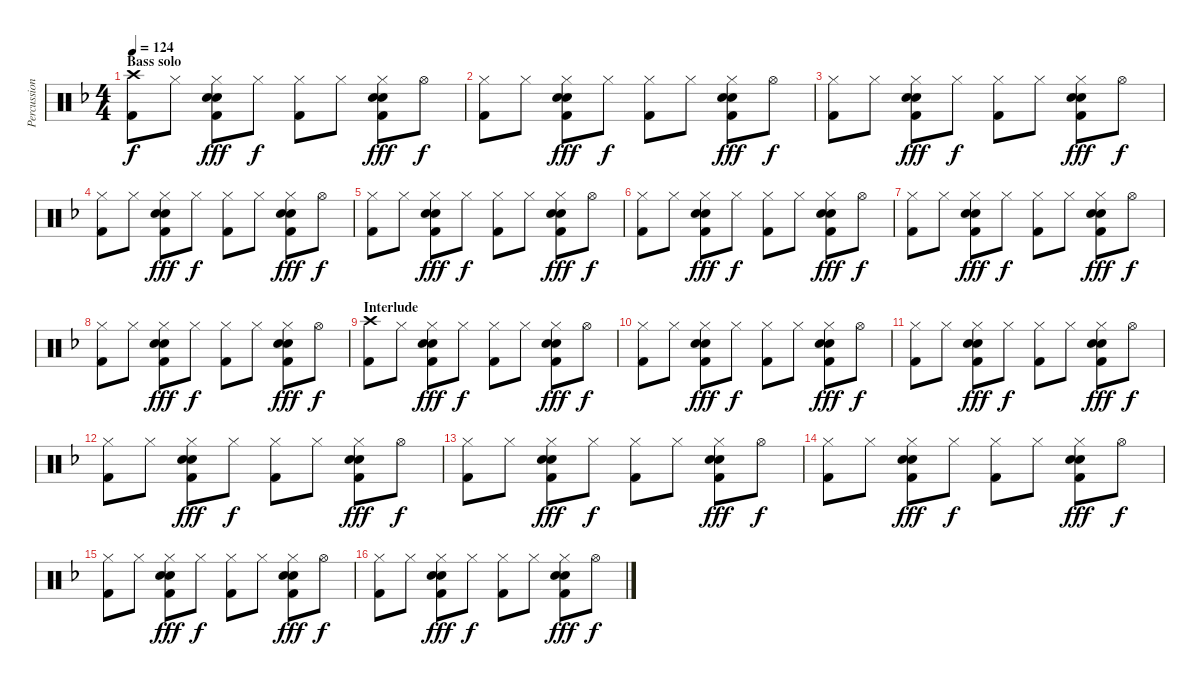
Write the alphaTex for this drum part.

\track ("Percussion" "Percussion") {instrument percussion}
\staff {score}
\articulation defaults
\ts (4 4)
\section ("" "Bass solo")
\tempo 124
\clef neutral
\ks f
("Crash high (hit)" "Kick (hit) 2").8{dy f} "Hi-Hat (closed)".8 ("Hi-Hat (closed)" "Hand Clap (hit)" "Electric Snare (hit)" "Kick (hit) 2").8{dy fff} "Hi-Hat (closed)".8{dy f} ("Hi-Hat (closed)" "Kick (hit) 2").8 "Hi-Hat (closed)".8 ("Hi-Hat (closed)" "Hand Clap (hit)" "Electric Snare (hit)" "Kick (hit) 2").8{dy fff} "Hi-Hat (open)".8{dy f} |
("Hi-Hat (closed)" "Kick (hit) 2").8 "Hi-Hat (closed)".8 ("Hi-Hat (closed)" "Hand Clap (hit)" "Electric Snare (hit)" "Kick (hit) 2").8{dy fff} "Hi-Hat (closed)".8{dy f} ("Hi-Hat (closed)" "Kick (hit) 2").8 "Hi-Hat (closed)".8 ("Hi-Hat (closed)" "Hand Clap (hit)" "Electric Snare (hit)" "Kick (hit) 2").8{dy fff} "Hi-Hat (open)".8{dy f} |
("Hi-Hat (closed)" "Kick (hit) 2").8 "Hi-Hat (closed)".8 ("Hi-Hat (closed)" "Hand Clap (hit)" "Electric Snare (hit)" "Kick (hit) 2").8{dy fff} "Hi-Hat (closed)".8{dy f} ("Hi-Hat (closed)" "Kick (hit) 2").8 "Hi-Hat (closed)".8 ("Hi-Hat (closed)" "Hand Clap (hit)" "Electric Snare (hit)" "Kick (hit) 2").8{dy fff} "Hi-Hat (open)".8{dy f} |
("Hi-Hat (closed)" "Kick (hit) 2").8 "Hi-Hat (closed)".8 ("Hi-Hat (closed)" "Hand Clap (hit)" "Electric Snare (hit)" "Kick (hit) 2").8{dy fff} "Hi-Hat (closed)".8{dy f} ("Hi-Hat (closed)" "Kick (hit) 2").8 "Hi-Hat (closed)".8 ("Hi-Hat (closed)" "Hand Clap (hit)" "Electric Snare (hit)" "Kick (hit) 2").8{dy fff} "Hi-Hat (open)".8{dy f} |
("Hi-Hat (closed)" "Kick (hit) 2").8 "Hi-Hat (closed)".8 ("Hi-Hat (closed)" "Hand Clap (hit)" "Electric Snare (hit)" "Kick (hit) 2").8{dy fff} "Hi-Hat (closed)".8{dy f} ("Hi-Hat (closed)" "Kick (hit) 2").8 "Hi-Hat (closed)".8 ("Hi-Hat (closed)" "Hand Clap (hit)" "Electric Snare (hit)" "Kick (hit) 2").8{dy fff} "Hi-Hat (open)".8{dy f} |
("Hi-Hat (closed)" "Kick (hit) 2").8 "Hi-Hat (closed)".8 ("Hi-Hat (closed)" "Hand Clap (hit)" "Electric Snare (hit)" "Kick (hit) 2").8{dy fff} "Hi-Hat (closed)".8{dy f} ("Hi-Hat (closed)" "Kick (hit) 2").8 "Hi-Hat (closed)".8 ("Hi-Hat (closed)" "Hand Clap (hit)" "Electric Snare (hit)" "Kick (hit) 2").8{dy fff} "Hi-Hat (open)".8{dy f} |
("Hi-Hat (closed)" "Kick (hit) 2").8 "Hi-Hat (closed)".8 ("Hi-Hat (closed)" "Hand Clap (hit)" "Electric Snare (hit)" "Kick (hit) 2").8{dy fff} "Hi-Hat (closed)".8{dy f} ("Hi-Hat (closed)" "Kick (hit) 2").8 "Hi-Hat (closed)".8 ("Hi-Hat (closed)" "Hand Clap (hit)" "Electric Snare (hit)" "Kick (hit) 2").8{dy fff} "Hi-Hat (open)".8{dy f} |
("Hi-Hat (closed)" "Kick (hit) 2").8 "Hi-Hat (closed)".8 ("Hi-Hat (closed)" "Hand Clap (hit)" "Electric Snare (hit)" "Kick (hit) 2").8{dy fff} "Hi-Hat (closed)".8{dy f} ("Hi-Hat (closed)" "Kick (hit) 2").8 "Hi-Hat (closed)".8 ("Hi-Hat (closed)" "Hand Clap (hit)" "Electric Snare (hit)" "Kick (hit) 2").8{dy fff} "Hi-Hat (open)".8{dy f} |
\section ("" "Interlude")
("Crash high (hit)" "Kick (hit) 2").8 "Hi-Hat (closed)".8 ("Hi-Hat (closed)" "Hand Clap (hit)" "Electric Snare (hit)" "Kick (hit) 2").8{dy fff} "Hi-Hat (closed)".8{dy f} ("Hi-Hat (closed)" "Kick (hit) 2").8 "Hi-Hat (closed)".8 ("Hi-Hat (closed)" "Hand Clap (hit)" "Electric Snare (hit)" "Kick (hit) 2").8{dy fff} "Hi-Hat (open)".8{dy f} |
("Hi-Hat (closed)" "Kick (hit) 2").8 "Hi-Hat (closed)".8 ("Hi-Hat (closed)" "Hand Clap (hit)" "Electric Snare (hit)" "Kick (hit) 2").8{dy fff} "Hi-Hat (closed)".8{dy f} ("Hi-Hat (closed)" "Kick (hit) 2").8 "Hi-Hat (closed)".8 ("Hi-Hat (closed)" "Hand Clap (hit)" "Electric Snare (hit)" "Kick (hit) 2").8{dy fff} "Hi-Hat (open)".8{dy f} |
("Hi-Hat (closed)" "Kick (hit) 2").8 "Hi-Hat (closed)".8 ("Hi-Hat (closed)" "Hand Clap (hit)" "Electric Snare (hit)" "Kick (hit) 2").8{dy fff} "Hi-Hat (closed)".8{dy f} ("Hi-Hat (closed)" "Kick (hit) 2").8 "Hi-Hat (closed)".8 ("Hi-Hat (closed)" "Hand Clap (hit)" "Electric Snare (hit)" "Kick (hit) 2").8{dy fff} "Hi-Hat (open)".8{dy f} |
("Hi-Hat (closed)" "Kick (hit) 2").8 "Hi-Hat (closed)".8 ("Hi-Hat (closed)" "Hand Clap (hit)" "Electric Snare (hit)" "Kick (hit) 2").8{dy fff} "Hi-Hat (closed)".8{dy f} ("Hi-Hat (closed)" "Kick (hit) 2").8 "Hi-Hat (closed)".8 ("Hi-Hat (closed)" "Hand Clap (hit)" "Electric Snare (hit)" "Kick (hit) 2").8{dy fff} "Hi-Hat (open)".8{dy f} |
("Hi-Hat (closed)" "Kick (hit) 2").8 "Hi-Hat (closed)".8 ("Hi-Hat (closed)" "Hand Clap (hit)" "Electric Snare (hit)" "Kick (hit) 2").8{dy fff} "Hi-Hat (closed)".8{dy f} ("Hi-Hat (closed)" "Kick (hit) 2").8 "Hi-Hat (closed)".8 ("Hi-Hat (closed)" "Hand Clap (hit)" "Electric Snare (hit)" "Kick (hit) 2").8{dy fff} "Hi-Hat (open)".8{dy f} |
("Hi-Hat (closed)" "Kick (hit) 2").8 "Hi-Hat (closed)".8 ("Hi-Hat (closed)" "Hand Clap (hit)" "Electric Snare (hit)" "Kick (hit) 2").8{dy fff} "Hi-Hat (closed)".8{dy f} ("Hi-Hat (closed)" "Kick (hit) 2").8 "Hi-Hat (closed)".8 ("Hi-Hat (closed)" "Hand Clap (hit)" "Electric Snare (hit)" "Kick (hit) 2").8{dy fff} "Hi-Hat (open)".8{dy f} |
("Hi-Hat (closed)" "Kick (hit) 2").8 "Hi-Hat (closed)".8 ("Hi-Hat (closed)" "Hand Clap (hit)" "Electric Snare (hit)" "Kick (hit) 2").8{dy fff} "Hi-Hat (closed)".8{dy f} ("Hi-Hat (closed)" "Kick (hit) 2").8 "Hi-Hat (closed)".8 ("Hi-Hat (closed)" "Hand Clap (hit)" "Electric Snare (hit)" "Kick (hit) 2").8{dy fff} "Hi-Hat (open)".8{dy f} |
("Hi-Hat (closed)" "Kick (hit) 2").8 "Hi-Hat (closed)".8 ("Hi-Hat (closed)" "Hand Clap (hit)" "Electric Snare (hit)" "Kick (hit) 2").8{dy fff} "Hi-Hat (closed)".8{dy f} ("Hi-Hat (closed)" "Kick (hit) 2").8 "Hi-Hat (closed)".8 ("Hi-Hat (closed)" "Hand Clap (hit)" "Electric Snare (hit)" "Kick (hit) 2").8{dy fff} "Hi-Hat (open)".8{dy f}
